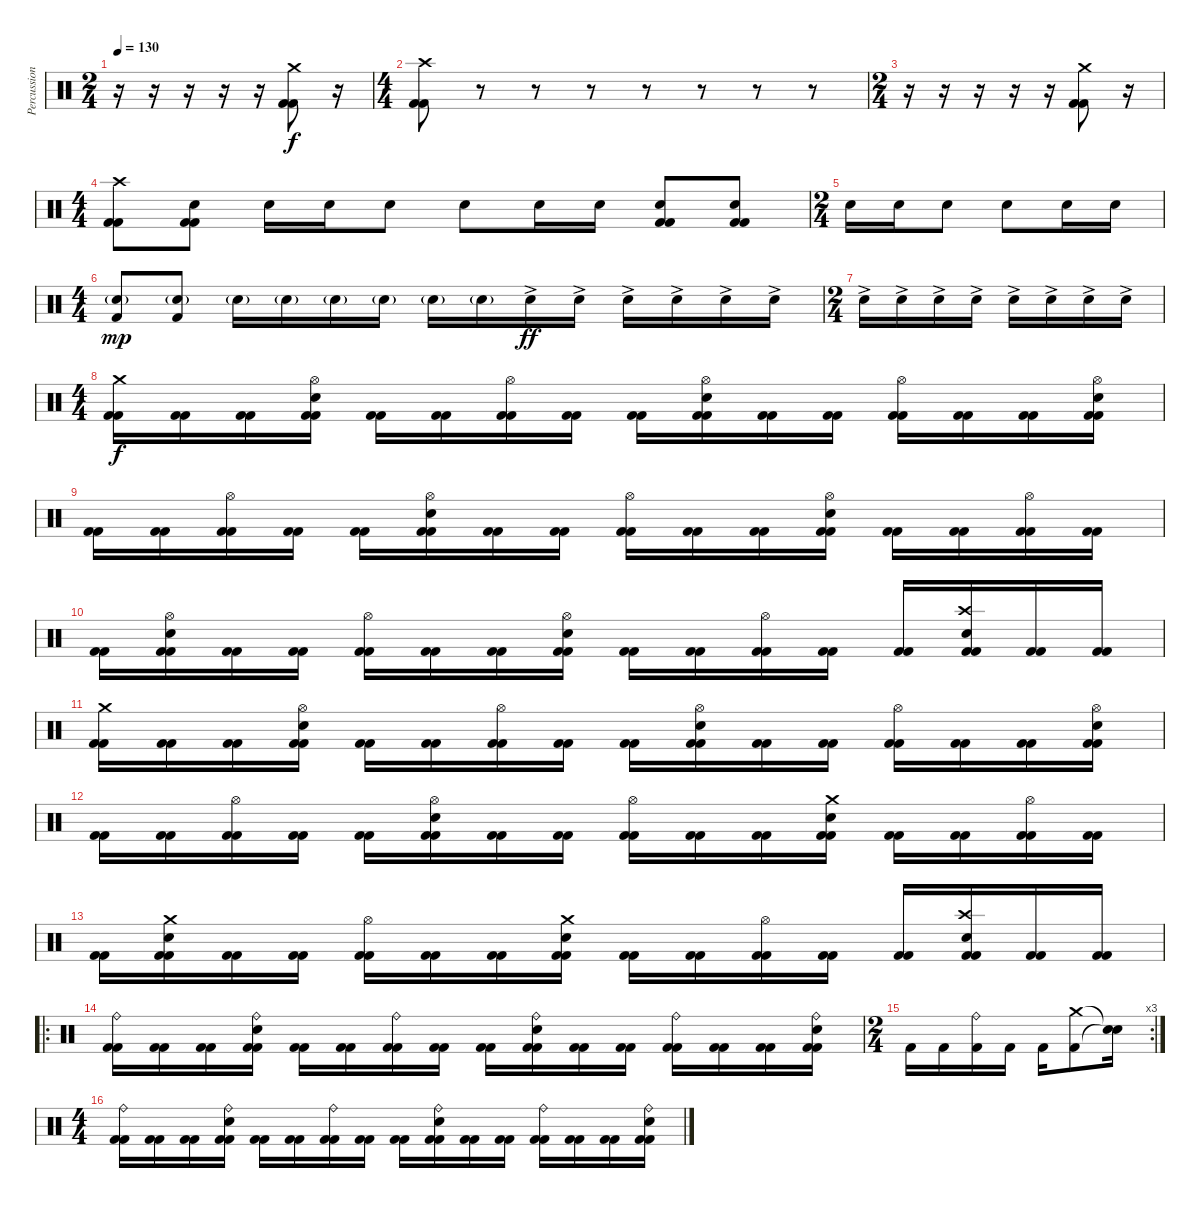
\track ("Percussion" "Percussion") {instrument percussion}
\staff {score}
\articulation defaults
\ts (2 4)
\tempo 130
\clef neutral
\ks c
r.16{dy f} r.16 r.16 r.16 r.16 ("Crash medium (hit)" "Kick (hit) 2" "Kick (hit) 2").8 r.16 |
\ts (4 4)
("Crash high (hit)" "Kick (hit) 2" "Kick (hit) 2").8 r.8 r.8 r.8 r.8 r.8 r.8 r.8 |
\ts (2 4)
r.16 r.16 r.16 r.16 r.16 ("Crash medium (hit)" "Kick (hit) 2" "Kick (hit) 2").8 r.16 |
\ts (4 4)
("Crash high (hit)" "Kick (hit) 2" "Kick (hit) 2").8 ("Electric Snare (hit)" "Kick (hit) 2" "Kick (hit) 2").8 "Electric Snare (hit)".16 "Electric Snare (hit)".16 "Electric Snare (hit)".8 "Electric Snare (hit)".8 "Electric Snare (hit)".16 "Electric Snare (hit)".16 ("Electric Snare (hit)" "Kick (hit) 2" "Kick (hit) 2").8 ("Electric Snare (hit)" "Kick (hit) 2" "Kick (hit) 2").8 |
\ts (2 4)
"Electric Snare (hit)".16 "Electric Snare (hit)".16 "Electric Snare (hit)".8 "Electric Snare (hit)".8 "Electric Snare (hit)".16 "Electric Snare (hit)".16 |
\ts (4 4)
("Electric Snare (hit)"{g} "Kick (hit) 2").8{dy mp} ("Electric Snare (hit)"{g} "Kick (hit) 2").8 "Electric Snare (hit)"{g}.16 "Electric Snare (hit)"{g}.16 "Electric Snare (hit)"{g}.16 "Electric Snare (hit)"{g}.16 "Electric Snare (hit)"{g}.16 "Electric Snare (hit)"{g}.16 "Electric Snare (hit)"{ac}.16{dy ff} "Electric Snare (hit)"{ac}.16 "Electric Snare (hit)"{ac}.16 "Electric Snare (hit)"{ac}.16 "Electric Snare (hit)"{ac}.16 "Electric Snare (hit)"{ac}.16 |
\ts (2 4)
"Electric Snare (hit)"{ac}.16 "Electric Snare (hit)"{ac}.16 "Electric Snare (hit)"{ac}.16 "Electric Snare (hit)"{ac}.16 "Electric Snare (hit)"{ac}.16 "Electric Snare (hit)"{ac}.16 "Electric Snare (hit)"{ac}.16 "Electric Snare (hit)"{ac}.16 |
\ts (4 4)
("Crash medium (hit)" "Kick (hit) 2" "Kick (hit) 2").16{dy f} ("Kick (hit) 2" "Kick (hit) 2").16 ("Kick (hit) 2" "Kick (hit) 2").16 ("Hi-Hat (open)" "Electric Snare (hit)" "Kick (hit) 2" "Kick (hit) 2").16 ("Kick (hit) 2" "Kick (hit) 2").16 ("Kick (hit) 2" "Kick (hit) 2").16 ("Hi-Hat (open)" "Kick (hit) 2" "Kick (hit) 2").16 ("Kick (hit) 2" "Kick (hit) 2").16 ("Kick (hit) 2" "Kick (hit) 2").16 ("Hi-Hat (open)" "Electric Snare (hit)" "Kick (hit) 2" "Kick (hit) 2").16 ("Kick (hit) 2" "Kick (hit) 2").16 ("Kick (hit) 2" "Kick (hit) 2").16 ("Hi-Hat (open)" "Kick (hit) 2" "Kick (hit) 2").16 ("Kick (hit) 2" "Kick (hit) 2").16 ("Kick (hit) 2" "Kick (hit) 2").16 ("Hi-Hat (open)" "Electric Snare (hit)" "Kick (hit) 2" "Kick (hit) 2").16 |
("Kick (hit) 2" "Kick (hit) 2").16 ("Kick (hit) 2" "Kick (hit) 2").16 ("Hi-Hat (open)" "Kick (hit) 2" "Kick (hit) 2").16 ("Kick (hit) 2" "Kick (hit) 2").16 ("Kick (hit) 2" "Kick (hit) 2").16 ("Hi-Hat (open)" "Electric Snare (hit)" "Kick (hit) 2" "Kick (hit) 2").16 ("Kick (hit) 2" "Kick (hit) 2").16 ("Kick (hit) 2" "Kick (hit) 2").16 ("Hi-Hat (open)" "Kick (hit) 2" "Kick (hit) 2").16 ("Kick (hit) 2" "Kick (hit) 2").16 ("Kick (hit) 2" "Kick (hit) 2").16 ("Hi-Hat (open)" "Electric Snare (hit)" "Kick (hit) 2" "Kick (hit) 2").16 ("Kick (hit) 2" "Kick (hit) 2").16 ("Kick (hit) 2" "Kick (hit) 2").16 ("Hi-Hat (open)" "Kick (hit) 2" "Kick (hit) 2").16 ("Kick (hit) 2" "Kick (hit) 2").16 |
("Kick (hit) 2" "Kick (hit) 2").16 ("Hi-Hat (open)" "Electric Snare (hit)" "Kick (hit) 2" "Kick (hit) 2").16 ("Kick (hit) 2" "Kick (hit) 2").16 ("Kick (hit) 2" "Kick (hit) 2").16 ("Hi-Hat (open)" "Kick (hit) 2" "Kick (hit) 2").16 ("Kick (hit) 2" "Kick (hit) 2").16 ("Kick (hit) 2" "Kick (hit) 2").16 ("Hi-Hat (open)" "Electric Snare (hit)" "Kick (hit) 2" "Kick (hit) 2").16 ("Kick (hit) 2" "Kick (hit) 2").16 ("Kick (hit) 2" "Kick (hit) 2").16 ("Hi-Hat (open)" "Kick (hit) 2" "Kick (hit) 2").16 ("Kick (hit) 2" "Kick (hit) 2").16 ("Kick (hit) 2" "Kick (hit) 2").16 ("Crash high (hit)" "Electric Snare (hit)" "Kick (hit) 2" "Kick (hit) 2").16 ("Kick (hit) 2" "Kick (hit) 2").16 ("Kick (hit) 2" "Kick (hit) 2").16 |
("Crash medium (hit)" "Kick (hit) 2" "Kick (hit) 2").16 ("Kick (hit) 2" "Kick (hit) 2").16 ("Kick (hit) 2" "Kick (hit) 2").16 ("Hi-Hat (open)" "Electric Snare (hit)" "Kick (hit) 2" "Kick (hit) 2").16 ("Kick (hit) 2" "Kick (hit) 2").16 ("Kick (hit) 2" "Kick (hit) 2").16 ("Hi-Hat (open)" "Kick (hit) 2" "Kick (hit) 2").16 ("Kick (hit) 2" "Kick (hit) 2").16 ("Kick (hit) 2" "Kick (hit) 2").16 ("Hi-Hat (open)" "Electric Snare (hit)" "Kick (hit) 2" "Kick (hit) 2").16 ("Kick (hit) 2" "Kick (hit) 2").16 ("Kick (hit) 2" "Kick (hit) 2").16 ("Hi-Hat (open)" "Kick (hit) 2" "Kick (hit) 2").16 ("Kick (hit) 2" "Kick (hit) 2").16 ("Kick (hit) 2" "Kick (hit) 2").16 ("Hi-Hat (open)" "Electric Snare (hit)" "Kick (hit) 2" "Kick (hit) 2").16 |
("Kick (hit) 2" "Kick (hit) 2").16 ("Kick (hit) 2" "Kick (hit) 2").16 ("Hi-Hat (open)" "Kick (hit) 2" "Kick (hit) 2").16 ("Kick (hit) 2" "Kick (hit) 2").16 ("Kick (hit) 2" "Kick (hit) 2").16 ("Hi-Hat (open)" "Electric Snare (hit)" "Kick (hit) 2" "Kick (hit) 2").16 ("Kick (hit) 2" "Kick (hit) 2").16 ("Kick (hit) 2" "Kick (hit) 2").16 ("Hi-Hat (open)" "Kick (hit) 2" "Kick (hit) 2").16 ("Kick (hit) 2" "Kick (hit) 2").16 ("Kick (hit) 2" "Kick (hit) 2").16 ("Crash medium (hit)" "Electric Snare (hit)" "Kick (hit) 2" "Kick (hit) 2").16 ("Kick (hit) 2" "Kick (hit) 2").16 ("Kick (hit) 2" "Kick (hit) 2").16 ("Hi-Hat (open)" "Kick (hit) 2" "Kick (hit) 2").16 ("Kick (hit) 2" "Kick (hit) 2").16 |
("Kick (hit) 2" "Kick (hit) 2").16 ("Crash medium (hit)" "Electric Snare (hit)" "Kick (hit) 2" "Kick (hit) 2").16 ("Kick (hit) 2" "Kick (hit) 2").16 ("Kick (hit) 2" "Kick (hit) 2").16 ("Hi-Hat (open)" "Kick (hit) 2" "Kick (hit) 2").16 ("Kick (hit) 2" "Kick (hit) 2").16 ("Kick (hit) 2" "Kick (hit) 2").16 ("Crash medium (hit)" "Electric Snare (hit)" "Kick (hit) 2" "Kick (hit) 2").16 ("Kick (hit) 2" "Kick (hit) 2").16 ("Kick (hit) 2" "Kick (hit) 2").16 ("Hi-Hat (open)" "Kick (hit) 2" "Kick (hit) 2").16 ("Kick (hit) 2" "Kick (hit) 2").16 ("Kick (hit) 2" "Kick (hit) 2").16 ("Crash high (hit)" "Electric Snare (hit)" "Kick (hit) 2" "Kick (hit) 2").16 ("Kick (hit) 2" "Kick (hit) 2").16 ("Kick (hit) 2" "Kick (hit) 2").16 |
\ro
("Ride (bell)" "Kick (hit) 2" "Kick (hit) 2").16 ("Kick (hit) 2" "Kick (hit) 2").16 ("Kick (hit) 2" "Kick (hit) 2").16 ("Ride (bell)" "Electric Snare (hit)" "Kick (hit) 2" "Kick (hit) 2").16 ("Kick (hit) 2" "Kick (hit) 2").16 ("Kick (hit) 2" "Kick (hit) 2").16 ("Ride (bell)" "Kick (hit) 2" "Kick (hit) 2").16 ("Kick (hit) 2" "Kick (hit) 2").16 ("Kick (hit) 2" "Kick (hit) 2").16 ("Ride (bell)" "Electric Snare (hit)" "Kick (hit) 2" "Kick (hit) 2").16 ("Kick (hit) 2" "Kick (hit) 2").16 ("Kick (hit) 2" "Kick (hit) 2").16 ("Ride (bell)" "Kick (hit) 2" "Kick (hit) 2").16 ("Kick (hit) 2" "Kick (hit) 2").16 ("Kick (hit) 2" "Kick (hit) 2").16 ("Ride (bell)" "Electric Snare (hit)" "Kick (hit) 2" "Kick (hit) 2").16 |
\rc 3
\ts (2 4)
"Kick (hit) 2".16 "Kick (hit) 2".16 ("Ride (bell)" "Kick (hit) 2").16 "Kick (hit) 2".16 "Kick (hit) 2".16 ("Crash medium (hit)" "Kick (hit) 2").8 ("Snare (hit)"{t} "Snare (hit)"{t}).16 |
\ts (4 4)
("Ride (bell)" "Kick (hit) 2" "Kick (hit) 2").16 ("Kick (hit) 2" "Kick (hit) 2").16 ("Kick (hit) 2" "Kick (hit) 2").16 ("Ride (bell)" "Electric Snare (hit)" "Kick (hit) 2" "Kick (hit) 2").16 ("Kick (hit) 2" "Kick (hit) 2").16 ("Kick (hit) 2" "Kick (hit) 2").16 ("Ride (bell)" "Kick (hit) 2" "Kick (hit) 2").16 ("Kick (hit) 2" "Kick (hit) 2").16 ("Kick (hit) 2" "Kick (hit) 2").16 ("Ride (bell)" "Electric Snare (hit)" "Kick (hit) 2" "Kick (hit) 2").16 ("Kick (hit) 2" "Kick (hit) 2").16 ("Kick (hit) 2" "Kick (hit) 2").16 ("Ride (bell)" "Kick (hit) 2" "Kick (hit) 2").16 ("Kick (hit) 2" "Kick (hit) 2").16 ("Kick (hit) 2" "Kick (hit) 2").16 ("Ride (bell)" "Electric Snare (hit)" "Kick (hit) 2" "Kick (hit) 2").16
